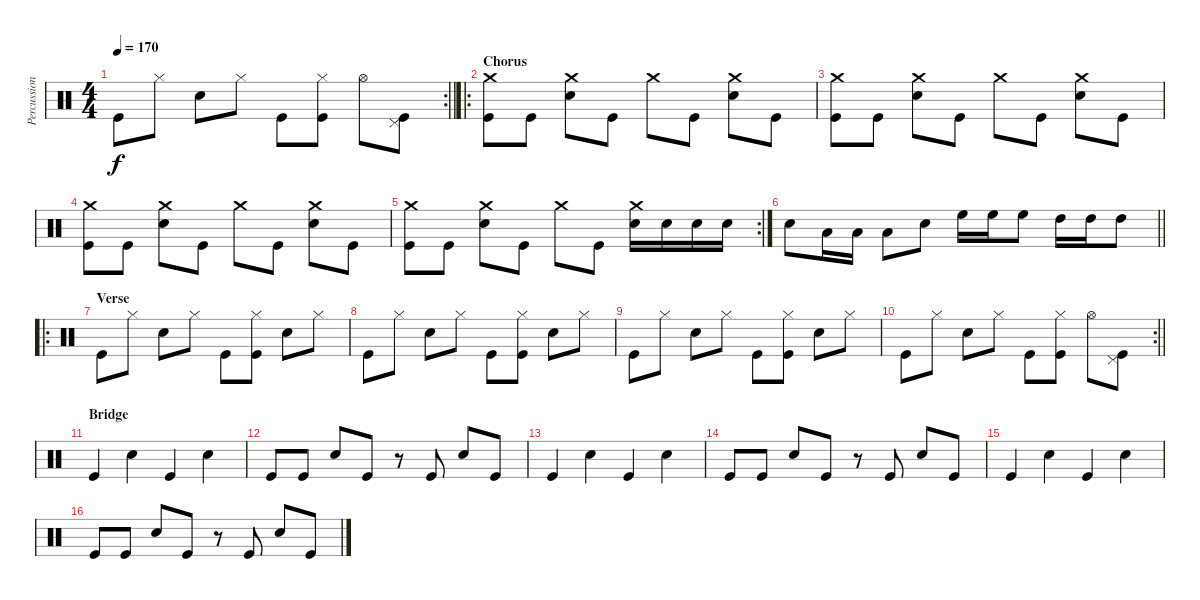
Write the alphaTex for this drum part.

\track ("Percussion" "Percussion") {instrument percussion}
\staff {score}
\articulation defaults
\rc 2
\ts (4 4)
\tempo 170
\clef neutral
\barLineRight lightlight
\ks c "Kick (hit)".8{dy f} "Hi-Hat (closed)".8 "Snare (hit) 2".8 "Hi-Hat (closed)".8 "Kick (hit)".8
("Hi-Hat (closed)" "Kick (hit)").8 "Hi-Hat (open)".8 ("Pedal Hi-Hat (hit)" "Kick (hit)").8 |
\ro
\section ("" "Chorus")
("Crash medium (hit)" "Kick (hit)").8 "Kick (hit)".8 ("Crash medium (hit)" "Snare (hit) 2").8 "Kick (hit)".8 "Crash medium (hit)".8 "Kick (hit)".8 ("Crash medium (hit)" "Snare (hit) 2").8 "Kick (hit)".8 |
("Crash medium (hit)" "Kick (hit)").8 "Kick (hit)".8 ("Crash medium (hit)" "Snare (hit) 2").8 "Kick (hit)".8 "Crash medium (hit)".8 "Kick (hit)".8 ("Crash medium (hit)" "Snare (hit) 2").8 "Kick (hit)".8 |
("Crash medium (hit)" "Kick (hit)").8 "Kick (hit)".8 ("Crash medium (hit)" "Snare (hit) 2").8 "Kick (hit)".8 "Crash medium (hit)".8 "Kick (hit)".8 ("Crash medium (hit)" "Snare (hit) 2").8 "Kick (hit)".8 |
\rc 2
("Crash medium (hit)" "Kick (hit)").8 "Kick (hit)".8 ("Crash medium (hit)" "Snare (hit) 2").8 "Kick (hit)".8 "Crash medium (hit)".8 "Kick (hit)".8 ("Crash medium (hit)" "Snare (hit) 2").16 "Snare (hit) 2".16 "Snare (hit) 2".16 "Snare (hit) 2".16 |
\barLineRight lightlight "Snare (hit) 2".8 "Low Tom (hit)".16 "Low Tom (hit)".16 "Low Tom (hit)".8 "Snare (hit) 2".8 "High Floor Tom (hit)".16 "High Floor Tom (hit)".16 "High Floor Tom (hit)".8 "High Tom (hit)".16 "High Tom (hit)".16 "High Tom (hit)".8
|
\ro
\section ("" "Verse")
"Kick (hit)".8 "Hi-Hat (closed)".8 "Snare (hit) 2".8 "Hi-Hat (closed)".8 "Kick (hit)".8 ("Hi-Hat (closed)" "Kick (hit)").8 "Snare (hit) 2".8 "Hi-Hat (closed)".8 |
"Kick (hit)".8 "Hi-Hat (closed)".8 "Snare (hit) 2".8 "Hi-Hat (closed)".8 "Kick (hit)".8 ("Hi-Hat (closed)" "Kick (hit)").8 "Snare (hit) 2".8 "Hi-Hat (closed)".8 |
"Kick (hit)".8 "Hi-Hat (closed)".8 "Snare (hit) 2".8 "Hi-Hat (closed)".8 "Kick (hit)".8 ("Hi-Hat (closed)" "Kick (hit)").8 "Snare (hit) 2".8 "Hi-Hat (closed)".8 |
\rc 2
\barLineRight lightlight "Kick (hit)".8 "Hi-Hat (closed)".8 "Snare (hit) 2".8 "Hi-Hat (closed)".8 "Kick (hit)".8
("Hi-Hat (closed)" "Kick (hit)").8 "Hi-Hat (open)".8 ("Pedal Hi-Hat (hit)" "Kick (hit)").8 |
\section ("" "Bridge")
"Kick (hit)".4 "Snare (hit) 2".4 "Kick (hit)".4 "Snare (hit) 2".4 |
"Kick (hit)".8 "Kick (hit)".8 "Snare (hit) 2".8 "Kick (hit)".8 r.8 "Kick (hit)".8 "Snare (hit) 2".8 "Kick (hit)".8 |
"Kick (hit)".4 "Snare (hit) 2".4 "Kick (hit)".4 "Snare (hit) 2".4 |
"Kick (hit)".8 "Kick (hit)".8 "Snare (hit) 2".8 "Kick (hit)".8 r.8 "Kick (hit)".8 "Snare (hit) 2".8 "Kick (hit)".8 |
"Kick (hit)".4 "Snare (hit) 2".4 "Kick (hit)".4 "Snare (hit) 2".4 |
"Kick (hit)".8 "Kick (hit)".8 "Snare (hit) 2".8 "Kick (hit)".8 r.8 "Kick (hit)".8 "Snare (hit) 2".8 "Kick (hit)".8
